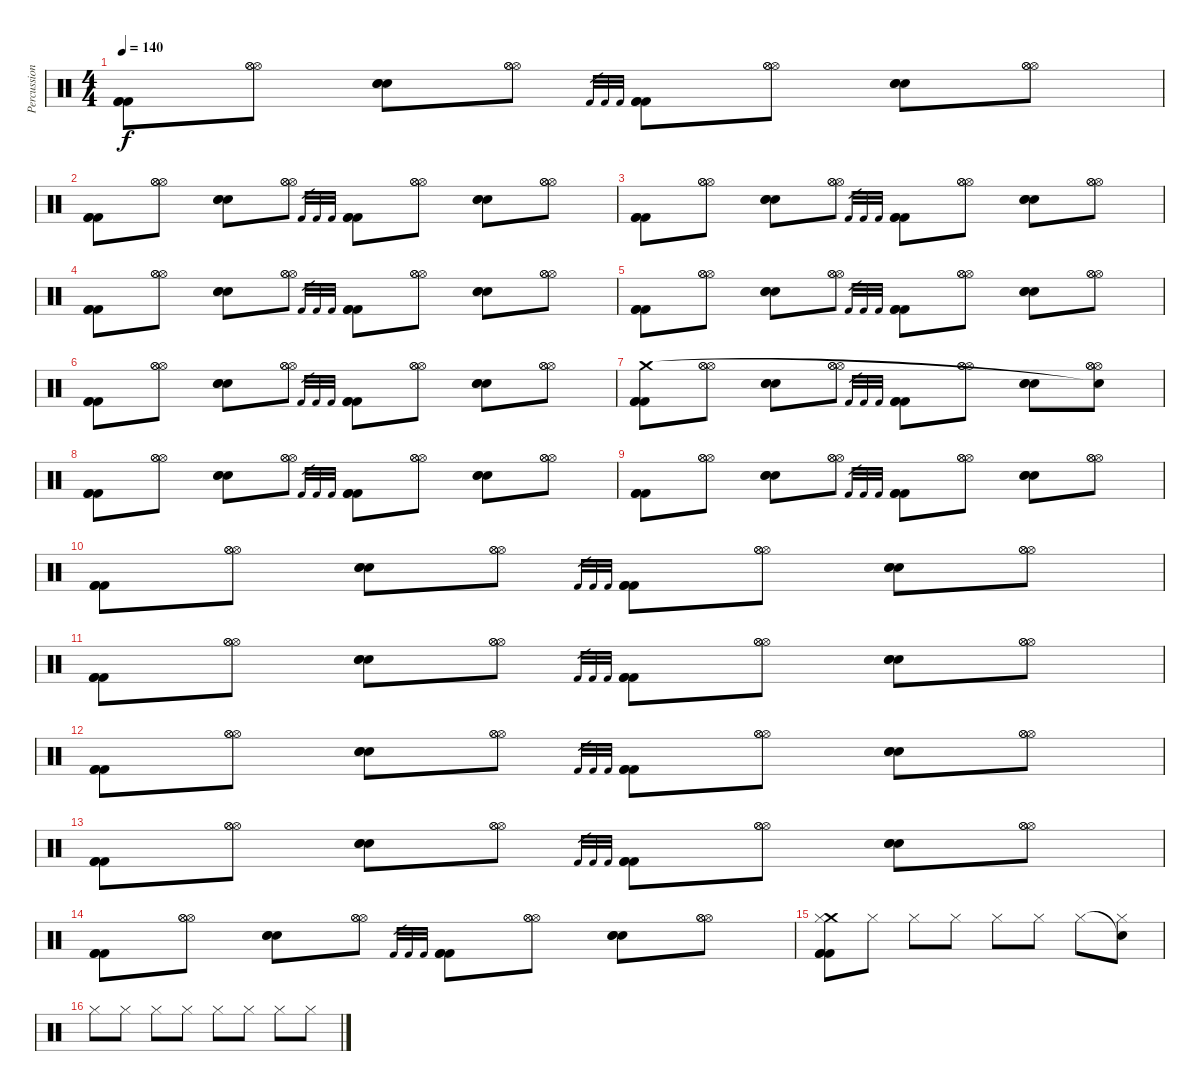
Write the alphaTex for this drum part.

\track ("Percussion" "Percussion") {instrument percussion}
\staff {score}
\articulation defaults
\ts (4 4)
\tempo 140
\clef neutral
\ks c
("Kick (hit) 2" "Kick (hit) 2" "Kick (hit) 2").8{dy f} ("Hi-Hat (open)" "Hi-Hat (open)" "Hi-Hat (open)").8 ("Electric Snare (hit)" "Electric Snare (hit)" "Electric Snare (hit)").8 ("Hi-Hat (open)" "Hi-Hat (open)" "Hi-Hat (open)").8 "Kick (hit) 2".32{gr} "Kick (hit) 2".32{gr} "Kick (hit) 2".32{gr} ("Kick (hit) 2" "Kick (hit) 2" "Kick (hit) 2").8 ("Hi-Hat (open)" "Hi-Hat (open)" "Hi-Hat (open)").8 ("Electric Snare (hit)" "Electric Snare (hit)" "Electric Snare (hit)").8 ("Hi-Hat (open)" "Hi-Hat (open)" "Hi-Hat (open)").8 |
("Kick (hit) 2" "Kick (hit) 2" "Kick (hit) 2").8 ("Hi-Hat (open)" "Hi-Hat (open)" "Hi-Hat (open)").8 ("Electric Snare (hit)" "Electric Snare (hit)" "Electric Snare (hit)").8 ("Hi-Hat (open)" "Hi-Hat (open)" "Hi-Hat (open)").8 "Kick (hit) 2".32{gr} "Kick (hit) 2".32{gr} "Kick (hit) 2".32{gr} ("Kick (hit) 2" "Kick (hit) 2" "Kick (hit) 2").8 ("Hi-Hat (open)" "Hi-Hat (open)" "Hi-Hat (open)").8 ("Electric Snare (hit)" "Electric Snare (hit)" "Electric Snare (hit)").8 ("Hi-Hat (open)" "Hi-Hat (open)" "Hi-Hat (open)").8 |
("Kick (hit) 2" "Kick (hit) 2" "Kick (hit) 2").8 ("Hi-Hat (open)" "Hi-Hat (open)" "Hi-Hat (open)").8 ("Electric Snare (hit)" "Electric Snare (hit)" "Electric Snare (hit)").8 ("Hi-Hat (open)" "Hi-Hat (open)" "Hi-Hat (open)").8 "Kick (hit) 2".32{gr} "Kick (hit) 2".32{gr} "Kick (hit) 2".32{gr} ("Kick (hit) 2" "Kick (hit) 2" "Kick (hit) 2").8 ("Hi-Hat (open)" "Hi-Hat (open)" "Hi-Hat (open)").8 ("Electric Snare (hit)" "Electric Snare (hit)" "Electric Snare (hit)").8 ("Hi-Hat (open)" "Hi-Hat (open)" "Hi-Hat (open)").8 |
("Kick (hit) 2" "Kick (hit) 2" "Kick (hit) 2").8 ("Hi-Hat (open)" "Hi-Hat (open)" "Hi-Hat (open)").8 ("Electric Snare (hit)" "Electric Snare (hit)" "Electric Snare (hit)").8 ("Hi-Hat (open)" "Hi-Hat (open)" "Hi-Hat (open)").8 "Kick (hit) 2".32{gr} "Kick (hit) 2".32{gr} "Kick (hit) 2".32{gr} ("Kick (hit) 2" "Kick (hit) 2" "Kick (hit) 2").8 ("Hi-Hat (open)" "Hi-Hat (open)" "Hi-Hat (open)").8 ("Electric Snare (hit)" "Electric Snare (hit)" "Electric Snare (hit)").8 ("Hi-Hat (open)" "Hi-Hat (open)" "Hi-Hat (open)").8 |
("Kick (hit) 2" "Kick (hit) 2" "Kick (hit) 2").8 ("Hi-Hat (open)" "Hi-Hat (open)" "Hi-Hat (open)").8 ("Electric Snare (hit)" "Electric Snare (hit)" "Electric Snare (hit)").8 ("Hi-Hat (open)" "Hi-Hat (open)" "Hi-Hat (open)").8 "Kick (hit) 2".32{gr} "Kick (hit) 2".32{gr} "Kick (hit) 2".32{gr} ("Kick (hit) 2" "Kick (hit) 2" "Kick (hit) 2").8 ("Hi-Hat (open)" "Hi-Hat (open)" "Hi-Hat (open)").8 ("Electric Snare (hit)" "Electric Snare (hit)" "Electric Snare (hit)").8 ("Hi-Hat (open)" "Hi-Hat (open)" "Hi-Hat (open)").8 |
("Kick (hit) 2" "Kick (hit) 2" "Kick (hit) 2").8 ("Hi-Hat (open)" "Hi-Hat (open)" "Hi-Hat (open)").8 ("Electric Snare (hit)" "Electric Snare (hit)" "Electric Snare (hit)").8 ("Hi-Hat (open)" "Hi-Hat (open)" "Hi-Hat (open)").8 "Kick (hit) 2".32{gr} "Kick (hit) 2".32{gr} "Kick (hit) 2".32{gr} ("Kick (hit) 2" "Kick (hit) 2" "Kick (hit) 2").8 ("Hi-Hat (open)" "Hi-Hat (open)" "Hi-Hat (open)").8 ("Electric Snare (hit)" "Electric Snare (hit)" "Electric Snare (hit)").8 ("Hi-Hat (open)" "Hi-Hat (open)" "Hi-Hat (open)").8 |
("Kick (hit) 2" "Kick (hit) 2" "Kick (hit) 2" "Crash medium (hit)").8 ("Hi-Hat (open)" "Hi-Hat (open)" "Hi-Hat (open)").8 ("Electric Snare (hit)" "Electric Snare (hit)" "Electric Snare (hit)").8 ("Hi-Hat (open)" "Hi-Hat (open)" "Hi-Hat (open)").8 "Kick (hit) 2".32{gr} "Kick (hit) 2".32{gr} "Kick (hit) 2".32{gr} ("Kick (hit) 2" "Kick (hit) 2" "Kick (hit) 2").8 ("Hi-Hat (open)" "Hi-Hat (open)" "Hi-Hat (open)").8 ("Electric Snare (hit)" "Electric Snare (hit)" "Electric Snare (hit)").8 ("Hi-Hat (open)" "Hi-Hat (open)" "Hi-Hat (open)" "Snare (hit)"{t}).8 |
("Kick (hit) 2" "Kick (hit) 2" "Kick (hit) 2").8 ("Hi-Hat (open)" "Hi-Hat (open)" "Hi-Hat (open)").8 ("Electric Snare (hit)" "Electric Snare (hit)" "Electric Snare (hit)").8 ("Hi-Hat (open)" "Hi-Hat (open)" "Hi-Hat (open)").8 "Kick (hit) 2".32{gr} "Kick (hit) 2".32{gr} "Kick (hit) 2".32{gr} ("Kick (hit) 2" "Kick (hit) 2" "Kick (hit) 2").8 ("Hi-Hat (open)" "Hi-Hat (open)" "Hi-Hat (open)").8 ("Electric Snare (hit)" "Electric Snare (hit)" "Electric Snare (hit)").8 ("Hi-Hat (open)" "Hi-Hat (open)" "Hi-Hat (open)").8 |
("Kick (hit) 2" "Kick (hit) 2" "Kick (hit) 2").8 ("Hi-Hat (open)" "Hi-Hat (open)" "Hi-Hat (open)").8 ("Electric Snare (hit)" "Electric Snare (hit)" "Electric Snare (hit)").8 ("Hi-Hat (open)" "Hi-Hat (open)" "Hi-Hat (open)").8 "Kick (hit) 2".32{gr} "Kick (hit) 2".32{gr} "Kick (hit) 2".32{gr} ("Kick (hit) 2" "Kick (hit) 2" "Kick (hit) 2").8 ("Hi-Hat (open)" "Hi-Hat (open)" "Hi-Hat (open)").8 ("Electric Snare (hit)" "Electric Snare (hit)" "Electric Snare (hit)").8 ("Hi-Hat (open)" "Hi-Hat (open)" "Hi-Hat (open)").8 |
("Kick (hit) 2" "Kick (hit) 2" "Kick (hit) 2").8 ("Hi-Hat (open)" "Hi-Hat (open)" "Hi-Hat (open)").8 ("Electric Snare (hit)" "Electric Snare (hit)" "Electric Snare (hit)").8 ("Hi-Hat (open)" "Hi-Hat (open)" "Hi-Hat (open)").8 "Kick (hit) 2".32{gr} "Kick (hit) 2".32{gr} "Kick (hit) 2".32{gr} ("Kick (hit) 2" "Kick (hit) 2" "Kick (hit) 2").8 ("Hi-Hat (open)" "Hi-Hat (open)" "Hi-Hat (open)").8 ("Electric Snare (hit)" "Electric Snare (hit)" "Electric Snare (hit)").8 ("Hi-Hat (open)" "Hi-Hat (open)" "Hi-Hat (open)").8 |
("Kick (hit) 2" "Kick (hit) 2" "Kick (hit) 2").8 ("Hi-Hat (open)" "Hi-Hat (open)" "Hi-Hat (open)").8 ("Electric Snare (hit)" "Electric Snare (hit)" "Electric Snare (hit)").8 ("Hi-Hat (open)" "Hi-Hat (open)" "Hi-Hat (open)").8 "Kick (hit) 2".32{gr} "Kick (hit) 2".32{gr} "Kick (hit) 2".32{gr} ("Kick (hit) 2" "Kick (hit) 2" "Kick (hit) 2").8 ("Hi-Hat (open)" "Hi-Hat (open)" "Hi-Hat (open)").8 ("Electric Snare (hit)" "Electric Snare (hit)" "Electric Snare (hit)").8 ("Hi-Hat (open)" "Hi-Hat (open)" "Hi-Hat (open)").8 |
("Kick (hit) 2" "Kick (hit) 2" "Kick (hit) 2").8 ("Hi-Hat (open)" "Hi-Hat (open)" "Hi-Hat (open)").8 ("Electric Snare (hit)" "Electric Snare (hit)" "Electric Snare (hit)").8 ("Hi-Hat (open)" "Hi-Hat (open)" "Hi-Hat (open)").8 "Kick (hit) 2".32{gr} "Kick (hit) 2".32{gr} "Kick (hit) 2".32{gr} ("Kick (hit) 2" "Kick (hit) 2" "Kick (hit) 2").8 ("Hi-Hat (open)" "Hi-Hat (open)" "Hi-Hat (open)").8 ("Electric Snare (hit)" "Electric Snare (hit)" "Electric Snare (hit)").8 ("Hi-Hat (open)" "Hi-Hat (open)" "Hi-Hat (open)").8 |
("Kick (hit) 2" "Kick (hit) 2" "Kick (hit) 2").8 ("Hi-Hat (open)" "Hi-Hat (open)" "Hi-Hat (open)").8 ("Electric Snare (hit)" "Electric Snare (hit)" "Electric Snare (hit)").8 ("Hi-Hat (open)" "Hi-Hat (open)" "Hi-Hat (open)").8 "Kick (hit) 2".32{gr} "Kick (hit) 2".32{gr} "Kick (hit) 2".32{gr} ("Kick (hit) 2" "Kick (hit) 2" "Kick (hit) 2").8 ("Hi-Hat (open)" "Hi-Hat (open)" "Hi-Hat (open)").8 ("Electric Snare (hit)" "Electric Snare (hit)" "Electric Snare (hit)").8 ("Hi-Hat (open)" "Hi-Hat (open)" "Hi-Hat (open)").8 |
("Kick (hit) 2" "Kick (hit) 2" "Kick (hit) 2").8 ("Hi-Hat (open)" "Hi-Hat (open)" "Hi-Hat (open)").8 ("Electric Snare (hit)" "Electric Snare (hit)" "Electric Snare (hit)").8 ("Hi-Hat (open)" "Hi-Hat (open)" "Hi-Hat (open)").8 "Kick (hit) 2".32{gr} "Kick (hit) 2".32{gr} "Kick (hit) 2".32{gr} ("Kick (hit) 2" "Kick (hit) 2" "Kick (hit) 2").8 ("Hi-Hat (open)" "Hi-Hat (open)" "Hi-Hat (open)").8 ("Electric Snare (hit)" "Electric Snare (hit)" "Electric Snare (hit)").8 ("Hi-Hat (open)" "Hi-Hat (open)" "Hi-Hat (open)").8 |
("Crash medium (hit)" "Kick (hit) 2" "Kick (hit) 2" "Kick (hit) 2" "Hi-Hat (closed)").8 "Hi-Hat (closed)".8 "Hi-Hat (closed)".8 "Hi-Hat (closed)".8 "Hi-Hat (closed)".8 "Hi-Hat (closed)".8 "Hi-Hat (closed)".8 ("Snare (hit)"{t} "Hi-Hat (closed)").8 |
"Hi-Hat (closed)".8 "Hi-Hat (closed)".8 "Hi-Hat (closed)".8 "Hi-Hat (closed)".8 "Hi-Hat (closed)".8 "Hi-Hat (closed)".8 "Hi-Hat (closed)".8 "Hi-Hat (closed)".8
